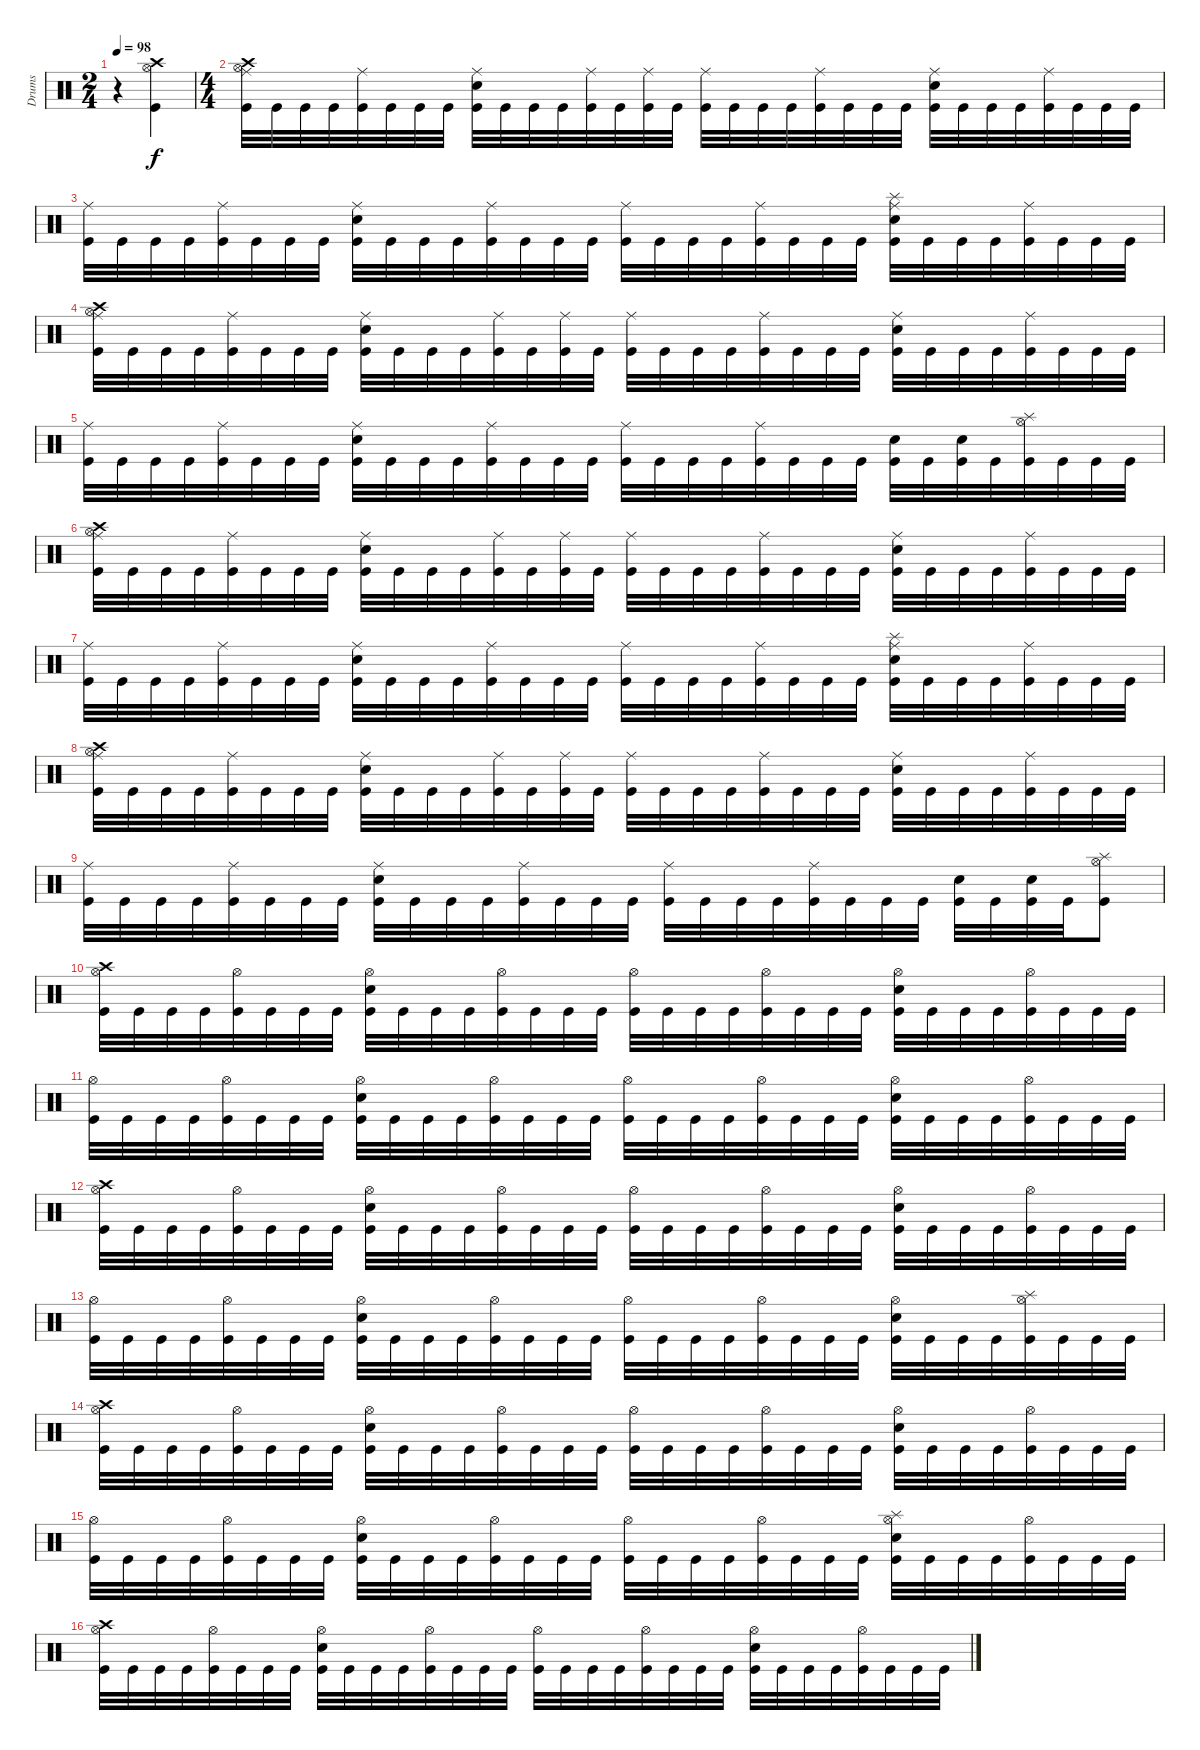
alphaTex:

\track ("Drums" "Drums") {instrument percussion}
\staff {score}
\articulation defaults
\ts (2 4)
\tempo 98
\clef neutral
\ks c
r.4{dy f} ("Crash high (hit)" "Hi-Hat (open)" "Kick (hit)").4 |
\ts (4 4)
("Crash high (hit)" "Hi-Hat (open)" "Ride (middle)" "Kick (hit)").32 "Kick (hit)".32 "Kick (hit)".32 "Kick (hit)".32 ("Ride (middle)" "Kick (hit)").32 "Kick (hit)".32 "Kick (hit)".32 "Kick (hit)".32 ("Ride (middle)" "Electric Snare (hit)" "Kick (hit)").32 "Kick (hit)".32 "Kick (hit)".32 "Kick (hit)".32 ("Ride (middle)" "Kick (hit)").32 "Kick (hit)".32 ("Ride (middle)" "Kick (hit)").32 "Kick (hit)".32 ("Ride (middle)" "Kick (hit)").32 "Kick (hit)".32 "Kick (hit)".32 "Kick (hit)".32 ("Ride (middle)" "Kick (hit)").32 "Kick (hit)".32 "Kick (hit)".32 "Kick (hit)".32 ("Ride (middle)" "Electric Snare (hit)" "Kick (hit)").32 "Kick (hit)".32 "Kick (hit)".32 "Kick (hit)".32 ("Ride (middle)" "Kick (hit)").32 "Kick (hit)".32 "Kick (hit)".32 "Kick (hit)".32 |
("Ride (middle)" "Kick (hit)").32 "Kick (hit)".32 "Kick (hit)".32 "Kick (hit)".32 ("Ride (middle)" "Kick (hit)").32 "Kick (hit)".32 "Kick (hit)".32 "Kick (hit)".32 ("Ride (middle)" "Electric Snare (hit)" "Kick (hit)").32 "Kick (hit)".32 "Kick (hit)".32 "Kick (hit)".32 ("Ride (middle)" "Kick (hit)").32 "Kick (hit)".32 "Kick (hit)".32 "Kick (hit)".32 ("Ride (middle)" "Kick (hit)").32 "Kick (hit)".32 "Kick (hit)".32 "Kick (hit)".32 ("Ride (middle)" "Kick (hit)").32 "Kick (hit)".32 "Kick (hit)".32 "Kick (hit)".32 ("Ride (middle)" "Splash (hit)" "Electric Snare (hit)" "Kick (hit)").32 "Kick (hit)".32 "Kick (hit)".32 "Kick (hit)".32 ("Ride (middle)" "Kick (hit)").32 "Kick (hit)".32 "Kick (hit)".32 "Kick (hit)".32 |
("Crash high (hit)" "Hi-Hat (open)" "Ride (middle)" "Kick (hit)").32 "Kick (hit)".32 "Kick (hit)".32 "Kick (hit)".32 ("Ride (middle)" "Kick (hit)").32 "Kick (hit)".32 "Kick (hit)".32 "Kick (hit)".32 ("Ride (middle)" "Electric Snare (hit)" "Kick (hit)").32 "Kick (hit)".32 "Kick (hit)".32 "Kick (hit)".32 ("Ride (middle)" "Kick (hit)").32 "Kick (hit)".32 ("Ride (middle)" "Kick (hit)").32 "Kick (hit)".32 ("Ride (middle)" "Kick (hit)").32 "Kick (hit)".32 "Kick (hit)".32 "Kick (hit)".32 ("Ride (middle)" "Kick (hit)").32 "Kick (hit)".32 "Kick (hit)".32 "Kick (hit)".32 ("Ride (middle)" "Electric Snare (hit)" "Kick (hit)").32 "Kick (hit)".32 "Kick (hit)".32 "Kick (hit)".32 ("Ride (middle)" "Kick (hit)").32 "Kick (hit)".32 "Kick (hit)".32 "Kick (hit)".32 |
("Ride (middle)" "Kick (hit)").32 "Kick (hit)".32 "Kick (hit)".32 "Kick (hit)".32 ("Ride (middle)" "Kick (hit)").32 "Kick (hit)".32 "Kick (hit)".32 "Kick (hit)".32 ("Ride (middle)" "Electric Snare (hit)" "Kick (hit)").32 "Kick (hit)".32 "Kick (hit)".32 "Kick (hit)".32 ("Ride (middle)" "Kick (hit)").32 "Kick (hit)".32 "Kick (hit)".32 "Kick (hit)".32 ("Ride (middle)" "Kick (hit)").32 "Kick (hit)".32 "Kick (hit)".32 "Kick (hit)".32 ("Ride (middle)" "Kick (hit)").32 "Kick (hit)".32 "Kick (hit)".32 "Kick (hit)".32 ("Electric Snare (hit)" "Kick (hit)").32 "Kick (hit)".32 ("Electric Snare (hit)" "Kick (hit)").32 "Kick (hit)".32 ("Splash (hit)" "Hi-Hat (open)" "Kick (hit)").32 "Kick (hit)".32 "Kick (hit)".32 "Kick (hit)".32 |
("Crash high (hit)" "Hi-Hat (open)" "Ride (middle)" "Kick (hit)").32 "Kick (hit)".32 "Kick (hit)".32 "Kick (hit)".32 ("Ride (middle)" "Kick (hit)").32 "Kick (hit)".32 "Kick (hit)".32 "Kick (hit)".32 ("Ride (middle)" "Electric Snare (hit)" "Kick (hit)").32 "Kick (hit)".32 "Kick (hit)".32 "Kick (hit)".32 ("Ride (middle)" "Kick (hit)").32 "Kick (hit)".32 ("Ride (middle)" "Kick (hit)").32 "Kick (hit)".32 ("Ride (middle)" "Kick (hit)").32 "Kick (hit)".32 "Kick (hit)".32 "Kick (hit)".32 ("Ride (middle)" "Kick (hit)").32 "Kick (hit)".32 "Kick (hit)".32 "Kick (hit)".32 ("Ride (middle)" "Electric Snare (hit)" "Kick (hit)").32 "Kick (hit)".32 "Kick (hit)".32 "Kick (hit)".32 ("Ride (middle)" "Kick (hit)").32 "Kick (hit)".32 "Kick (hit)".32 "Kick (hit)".32 |
("Ride (middle)" "Kick (hit)").32 "Kick (hit)".32 "Kick (hit)".32 "Kick (hit)".32 ("Ride (middle)" "Kick (hit)").32 "Kick (hit)".32 "Kick (hit)".32 "Kick (hit)".32 ("Ride (middle)" "Electric Snare (hit)" "Kick (hit)").32 "Kick (hit)".32 "Kick (hit)".32 "Kick (hit)".32 ("Ride (middle)" "Kick (hit)").32 "Kick (hit)".32 "Kick (hit)".32 "Kick (hit)".32 ("Ride (middle)" "Kick (hit)").32 "Kick (hit)".32 "Kick (hit)".32 "Kick (hit)".32 ("Ride (middle)" "Kick (hit)").32 "Kick (hit)".32 "Kick (hit)".32 "Kick (hit)".32 ("Ride (middle)" "Splash (hit)" "Electric Snare (hit)" "Kick (hit)").32 "Kick (hit)".32 "Kick (hit)".32 "Kick (hit)".32 ("Ride (middle)" "Kick (hit)").32 "Kick (hit)".32 "Kick (hit)".32 "Kick (hit)".32 |
("Crash high (hit)" "Hi-Hat (open)" "Ride (middle)" "Kick (hit)").32 "Kick (hit)".32 "Kick (hit)".32 "Kick (hit)".32 ("Ride (middle)" "Kick (hit)").32 "Kick (hit)".32 "Kick (hit)".32 "Kick (hit)".32 ("Ride (middle)" "Electric Snare (hit)" "Kick (hit)").32 "Kick (hit)".32 "Kick (hit)".32 "Kick (hit)".32 ("Ride (middle)" "Kick (hit)").32 "Kick (hit)".32 ("Ride (middle)" "Kick (hit)").32 "Kick (hit)".32 ("Ride (middle)" "Kick (hit)").32 "Kick (hit)".32 "Kick (hit)".32 "Kick (hit)".32 ("Ride (middle)" "Kick (hit)").32 "Kick (hit)".32 "Kick (hit)".32 "Kick (hit)".32 ("Ride (middle)" "Electric Snare (hit)" "Kick (hit)").32 "Kick (hit)".32 "Kick (hit)".32 "Kick (hit)".32 ("Ride (middle)" "Kick (hit)").32 "Kick (hit)".32 "Kick (hit)".32 "Kick (hit)".32 |
("Ride (middle)" "Kick (hit)").32 "Kick (hit)".32 "Kick (hit)".32 "Kick (hit)".32 ("Ride (middle)" "Kick (hit)").32 "Kick (hit)".32 "Kick (hit)".32 "Kick (hit)".32 ("Ride (middle)" "Electric Snare (hit)" "Kick (hit)").32 "Kick (hit)".32 "Kick (hit)".32 "Kick (hit)".32 ("Ride (middle)" "Kick (hit)").32 "Kick (hit)".32 "Kick (hit)".32 "Kick (hit)".32 ("Ride (middle)" "Kick (hit)").32 "Kick (hit)".32 "Kick (hit)".32 "Kick (hit)".32 ("Ride (middle)" "Kick (hit)").32 "Kick (hit)".32 "Kick (hit)".32 "Kick (hit)".32 ("Electric Snare (hit)" "Kick (hit)").32 "Kick (hit)".32 ("Electric Snare (hit)" "Kick (hit)").32 "Kick (hit)".32 ("Splash (hit)" "Hi-Hat (open)" "Kick (hit)").8 |
("Crash high (hit)" "Hi-Hat (open)" "Kick (hit)").32 "Kick (hit)".32 "Kick (hit)".32 "Kick (hit)".32 ("Hi-Hat (open)" "Kick (hit)").32 "Kick (hit)".32 "Kick (hit)".32 "Kick (hit)".32 ("Hi-Hat (open)" "Electric Snare (hit)" "Kick (hit)").32 "Kick (hit)".32 "Kick (hit)".32 "Kick (hit)".32 ("Hi-Hat (open)" "Kick (hit)").32 "Kick (hit)".32 "Kick (hit)".32 "Kick (hit)".32 ("Hi-Hat (open)" "Kick (hit)").32 "Kick (hit)".32 "Kick (hit)".32 "Kick (hit)".32 ("Hi-Hat (open)" "Kick (hit)").32 "Kick (hit)".32 "Kick (hit)".32 "Kick (hit)".32 ("Hi-Hat (open)" "Electric Snare (hit)" "Kick (hit)").32 "Kick (hit)".32 "Kick (hit)".32 "Kick (hit)".32 ("Hi-Hat (open)" "Kick (hit)").32 "Kick (hit)".32 "Kick (hit)".32 "Kick (hit)".32 |
("Hi-Hat (open)" "Kick (hit)").32 "Kick (hit)".32 "Kick (hit)".32 "Kick (hit)".32 ("Hi-Hat (open)" "Kick (hit)").32 "Kick (hit)".32 "Kick (hit)".32 "Kick (hit)".32 ("Hi-Hat (open)" "Electric Snare (hit)" "Kick (hit)").32 "Kick (hit)".32 "Kick (hit)".32 "Kick (hit)".32 ("Hi-Hat (open)" "Kick (hit)").32 "Kick (hit)".32 "Kick (hit)".32 "Kick (hit)".32 ("Hi-Hat (open)" "Kick (hit)").32 "Kick (hit)".32 "Kick (hit)".32 "Kick (hit)".32 ("Hi-Hat (open)" "Kick (hit)").32 "Kick (hit)".32 "Kick (hit)".32 "Kick (hit)".32 ("Hi-Hat (open)" "Electric Snare (hit)" "Kick (hit)").32 "Kick (hit)".32 "Kick (hit)".32 "Kick (hit)".32 ("Hi-Hat (open)" "Kick (hit)").32 "Kick (hit)".32 "Kick (hit)".32 "Kick (hit)".32 |
("Crash high (hit)" "Hi-Hat (open)" "Kick (hit)").32 "Kick (hit)".32 "Kick (hit)".32 "Kick (hit)".32 ("Hi-Hat (open)" "Kick (hit)").32 "Kick (hit)".32 "Kick (hit)".32 "Kick (hit)".32 ("Hi-Hat (open)" "Electric Snare (hit)" "Kick (hit)").32 "Kick (hit)".32 "Kick (hit)".32 "Kick (hit)".32 ("Hi-Hat (open)" "Kick (hit)").32 "Kick (hit)".32 "Kick (hit)".32 "Kick (hit)".32 ("Hi-Hat (open)" "Kick (hit)").32 "Kick (hit)".32 "Kick (hit)".32 "Kick (hit)".32 ("Hi-Hat (open)" "Kick (hit)").32 "Kick (hit)".32 "Kick (hit)".32 "Kick (hit)".32 ("Hi-Hat (open)" "Electric Snare (hit)" "Kick (hit)").32 "Kick (hit)".32 "Kick (hit)".32 "Kick (hit)".32 ("Hi-Hat (open)" "Kick (hit)").32 "Kick (hit)".32 "Kick (hit)".32 "Kick (hit)".32 |
("Hi-Hat (open)" "Kick (hit)").32 "Kick (hit)".32 "Kick (hit)".32 "Kick (hit)".32 ("Hi-Hat (open)" "Kick (hit)").32 "Kick (hit)".32 "Kick (hit)".32 "Kick (hit)".32 ("Hi-Hat (open)" "Electric Snare (hit)" "Kick (hit)").32 "Kick (hit)".32 "Kick (hit)".32 "Kick (hit)".32 ("Hi-Hat (open)" "Kick (hit)").32 "Kick (hit)".32 "Kick (hit)".32 "Kick (hit)".32 ("Hi-Hat (open)" "Kick (hit)").32 "Kick (hit)".32 "Kick (hit)".32 "Kick (hit)".32 ("Hi-Hat (open)" "Kick (hit)").32 "Kick (hit)".32 "Kick (hit)".32 "Kick (hit)".32 ("Hi-Hat (open)" "Electric Snare (hit)" "Kick (hit)").32 "Kick (hit)".32 "Kick (hit)".32 "Kick (hit)".32 ("Splash (hit)" "Hi-Hat (open)" "Kick (hit)").32 "Kick (hit)".32 "Kick (hit)".32 "Kick (hit)".32 |
("Crash high (hit)" "Hi-Hat (open)" "Kick (hit)").32 "Kick (hit)".32 "Kick (hit)".32 "Kick (hit)".32 ("Hi-Hat (open)" "Kick (hit)").32 "Kick (hit)".32 "Kick (hit)".32 "Kick (hit)".32 ("Hi-Hat (open)" "Electric Snare (hit)" "Kick (hit)").32 "Kick (hit)".32 "Kick (hit)".32 "Kick (hit)".32 ("Hi-Hat (open)" "Kick (hit)").32 "Kick (hit)".32 "Kick (hit)".32 "Kick (hit)".32 ("Hi-Hat (open)" "Kick (hit)").32 "Kick (hit)".32 "Kick (hit)".32 "Kick (hit)".32 ("Hi-Hat (open)" "Kick (hit)").32 "Kick (hit)".32 "Kick (hit)".32 "Kick (hit)".32 ("Hi-Hat (open)" "Electric Snare (hit)" "Kick (hit)").32 "Kick (hit)".32 "Kick (hit)".32 "Kick (hit)".32 ("Hi-Hat (open)" "Kick (hit)").32 "Kick (hit)".32 "Kick (hit)".32 "Kick (hit)".32 |
("Hi-Hat (open)" "Kick (hit)").32 "Kick (hit)".32 "Kick (hit)".32 "Kick (hit)".32 ("Hi-Hat (open)" "Kick (hit)").32 "Kick (hit)".32 "Kick (hit)".32 "Kick (hit)".32 ("Hi-Hat (open)" "Electric Snare (hit)" "Kick (hit)").32 "Kick (hit)".32 "Kick (hit)".32 "Kick (hit)".32 ("Hi-Hat (open)" "Kick (hit)").32 "Kick (hit)".32 "Kick (hit)".32 "Kick (hit)".32 ("Hi-Hat (open)" "Kick (hit)").32 "Kick (hit)".32 "Kick (hit)".32 "Kick (hit)".32 ("Hi-Hat (open)" "Kick (hit)").32 "Kick (hit)".32 "Kick (hit)".32 "Kick (hit)".32 ("Splash (hit)" "Hi-Hat (open)" "Electric Snare (hit)" "Kick (hit)").32 "Kick (hit)".32 "Kick (hit)".32 "Kick (hit)".32 ("Hi-Hat (open)" "Kick (hit)").32 "Kick (hit)".32 "Kick (hit)".32 "Kick (hit)".32 |
("Crash high (hit)" "Hi-Hat (open)" "Kick (hit)").32 "Kick (hit)".32 "Kick (hit)".32 "Kick (hit)".32 ("Hi-Hat (open)" "Kick (hit)").32 "Kick (hit)".32 "Kick (hit)".32 "Kick (hit)".32 ("Hi-Hat (open)" "Electric Snare (hit)" "Kick (hit)").32 "Kick (hit)".32 "Kick (hit)".32 "Kick (hit)".32 ("Hi-Hat (open)" "Kick (hit)").32 "Kick (hit)".32 "Kick (hit)".32 "Kick (hit)".32 ("Hi-Hat (open)" "Kick (hit)").32 "Kick (hit)".32 "Kick (hit)".32 "Kick (hit)".32 ("Hi-Hat (open)" "Kick (hit)").32 "Kick (hit)".32 "Kick (hit)".32 "Kick (hit)".32 ("Hi-Hat (open)" "Electric Snare (hit)" "Kick (hit)").32 "Kick (hit)".32 "Kick (hit)".32 "Kick (hit)".32 ("Hi-Hat (open)" "Kick (hit)").32 "Kick (hit)".32 "Kick (hit)".32 "Kick (hit)".32
